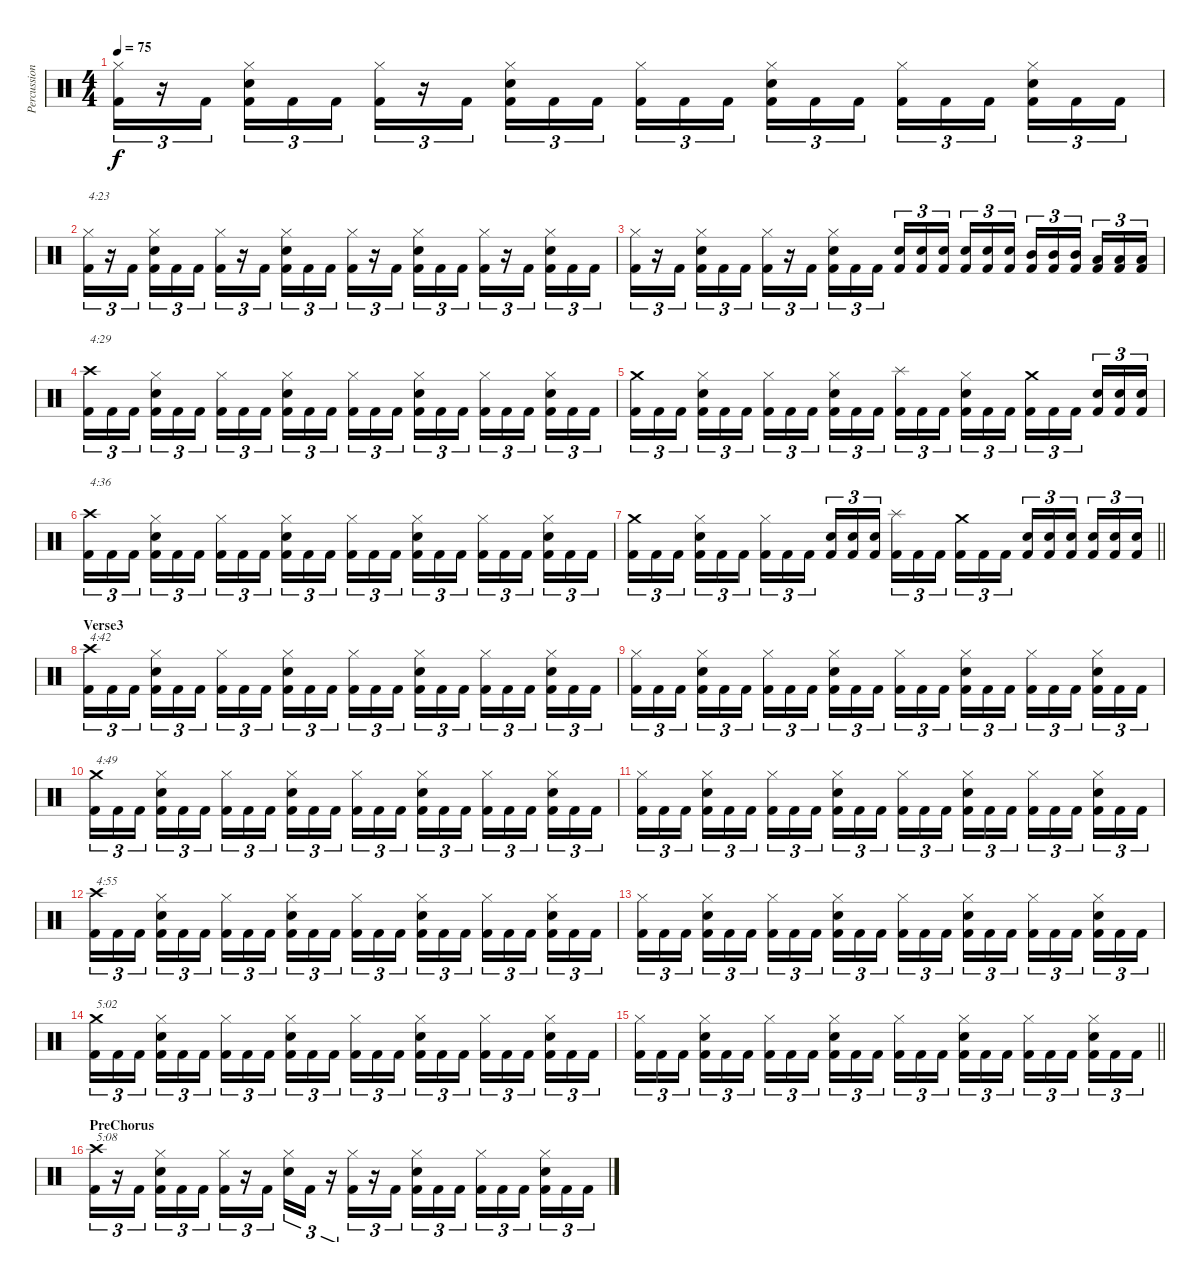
\track ("Percussion" "Percussion") {instrument percussion}
\staff {score}
\articulation defaults
\ts (4 4)
\tempo 75
\clef neutral
\ks c
("Hi-Hat (closed)" "Kick (hit) 2").16{tu (3 2) dy f} r.16{tu (3 2)} "Kick (hit) 2".16{tu (3 2)} ("Hi-Hat (closed)" "Snare (hit) 2" "Kick (hit) 2").16{tu (3 2)} "Kick (hit) 2".16{tu (3 2)} "Kick (hit) 2".16{tu (3 2)} ("Hi-Hat (closed)" "Kick (hit) 2").16{tu (3 2)} r.16{tu (3 2)} "Kick (hit) 2".16{tu (3 2)} ("Hi-Hat (closed)" "Snare (hit) 2" "Kick (hit) 2").16{tu (3 2)} "Kick (hit) 2".16{tu (3 2)} "Kick (hit) 2".16{tu (3 2)} ("Hi-Hat (closed)" "Kick (hit) 2").16{tu (3 2)} "Kick (hit) 2".16{tu (3 2)} "Kick (hit) 2".16{tu (3 2)} ("Hi-Hat (closed)" "Snare (hit) 2" "Kick (hit) 2").16{tu (3 2)} "Kick (hit) 2".16{tu (3 2)} "Kick (hit) 2".16{tu (3 2)} ("Hi-Hat (closed)" "Kick (hit) 2").16{tu (3 2)} "Kick (hit) 2".16{tu (3 2)} "Kick (hit) 2".16{tu (3 2)} ("Hi-Hat (closed)" "Snare (hit) 2" "Kick (hit) 2").16{tu (3 2)} "Kick (hit) 2".16{tu (3 2)} "Kick (hit) 2".16{tu (3 2)} |
("Hi-Hat (closed)" "Kick (hit) 2").16{tu (3 2) txt "4:23"} r.16{tu (3 2)} "Kick (hit) 2".16{tu (3 2)} ("Hi-Hat (closed)" "Snare (hit) 2" "Kick (hit) 2").16{tu (3 2)} "Kick (hit) 2".16{tu (3 2)} "Kick (hit) 2".16{tu (3 2)} ("Hi-Hat (closed)" "Kick (hit) 2").16{tu (3 2)} r.16{tu (3 2)} "Kick (hit) 2".16{tu (3 2)} ("Hi-Hat (closed)" "Snare (hit) 2" "Kick (hit) 2").16{tu (3 2)} "Kick (hit) 2".16{tu (3 2)} "Kick (hit) 2".16{tu (3 2)} ("Hi-Hat (closed)" "Kick (hit) 2").16{tu (3 2)} r.16{tu (3 2)} "Kick (hit) 2".16{tu (3 2)} ("Hi-Hat (closed)" "Snare (hit) 2" "Kick (hit) 2").16{tu (3 2)} "Kick (hit) 2".16{tu (3 2)} "Kick (hit) 2".16{tu (3 2)} ("Hi-Hat (closed)" "Kick (hit) 2").16{tu (3 2)} r.16{tu (3 2)} "Kick (hit) 2".16{tu (3 2)} ("Hi-Hat (closed)" "Snare (hit) 2" "Kick (hit) 2").16{tu (3 2)} "Kick (hit) 2".16{tu (3 2)} "Kick (hit) 2".16{tu (3 2)} |
("Hi-Hat (closed)" "Kick (hit) 2").16{tu (3 2)} r.16{tu (3 2)} "Kick (hit) 2".16{tu (3 2)} ("Hi-Hat (closed)" "Snare (hit) 2" "Kick (hit) 2").16{tu (3 2)} "Kick (hit) 2".16{tu (3 2)} "Kick (hit) 2".16{tu (3 2)} ("Hi-Hat (closed)" "Kick (hit) 2").16{tu (3 2)} r.16{tu (3 2)} "Kick (hit) 2".16{tu (3 2)} ("Hi-Hat (closed)" "Snare (hit) 2" "Kick (hit) 2").16{tu (3 2)} "Kick (hit) 2".16{tu (3 2)} "Kick (hit) 2".16{tu (3 2)} ("Snare (hit) 2" "Kick (hit) 2").16{tu (3 2)} ("Snare (hit) 2" "Kick (hit) 2").16{tu (3 2)} ("Snare (hit) 2" "Kick (hit) 2").16{tu (3 2)} ("Snare (hit) 2" "Kick (hit) 2").16{tu (3 2)} ("Snare (hit) 2" "Kick (hit) 2").16{tu (3 2)} ("Snare (hit) 2" "Kick (hit) 2").16{tu (3 2)} ("Mid Tom (hit)" "Kick (hit) 2").16{tu (3 2)} ("Mid Tom (hit)" "Kick (hit) 2").16{tu (3 2)} ("Mid Tom (hit)" "Kick (hit) 2").16{tu (3 2)} ("Low Tom (hit)" "Kick (hit) 2").16{tu (3 2)} ("Low Tom (hit)" "Kick (hit) 2").16{tu (3 2)} ("Low Tom (hit)" "Kick (hit) 2").16{tu (3 2)} |
("Crash high (hit)" "Kick (hit) 2").16{tu (3 2) txt "4:29"} "Kick (hit) 2".16{tu (3 2)} "Kick (hit) 2".16{tu (3 2)} ("Hi-Hat (closed)" "Snare (hit) 2" "Kick (hit) 2").16{tu (3 2)} "Kick (hit) 2".16{tu (3 2)} "Kick (hit) 2".16{tu (3 2)} ("Hi-Hat (closed)" "Kick (hit) 2").16{tu (3 2)} "Kick (hit) 2".16{tu (3 2)} "Kick (hit) 2".16{tu (3 2)} ("Hi-Hat (closed)" "Snare (hit) 2" "Kick (hit) 2").16{tu (3 2)} "Kick (hit) 2".16{tu (3 2)} "Kick (hit) 2".16{tu (3 2)} ("Hi-Hat (closed)" "Kick (hit) 2").16{tu (3 2)} "Kick (hit) 2".16{tu (3 2)} "Kick (hit) 2".16{tu (3 2)} ("Hi-Hat (closed)" "Snare (hit) 2" "Kick (hit) 2").16{tu (3 2)} "Kick (hit) 2".16{tu (3 2)} "Kick (hit) 2".16{tu (3 2)} ("Hi-Hat (closed)" "Kick (hit) 2").16{tu (3 2)} "Kick (hit) 2".16{tu (3 2)} "Kick (hit) 2".16{tu (3 2)} ("Hi-Hat (closed)" "Snare (hit) 2" "Kick (hit) 2").16{tu (3 2)} "Kick (hit) 2".16{tu (3 2)} "Kick (hit) 2".16{tu (3 2)} |
("Crash medium (hit)" "Kick (hit) 2").16{tu (3 2)} "Kick (hit) 2".16{tu (3 2)} "Kick (hit) 2".16{tu (3 2)} ("Hi-Hat (closed)" "Snare (hit) 2" "Kick (hit) 2").16{tu (3 2)} "Kick (hit) 2".16{tu (3 2)} "Kick (hit) 2".16{tu (3 2)} ("Hi-Hat (closed)" "Kick (hit) 2").16{tu (3 2)} "Kick (hit) 2".16{tu (3 2)} "Kick (hit) 2".16{tu (3 2)} ("Hi-Hat (closed)" "Snare (hit) 2" "Kick (hit) 2").16{tu (3 2)} "Kick (hit) 2".16{tu (3 2)} "Kick (hit) 2".16{tu (3 2)} ("Splash (hit)" "Kick (hit) 2").16{tu (3 2)} "Kick (hit) 2".16{tu (3 2)} "Kick (hit) 2".16{tu (3 2)} ("Hi-Hat (closed)" "Snare (hit) 2" "Kick (hit) 2").16{tu (3 2)} "Kick (hit) 2".16{tu (3 2)} "Kick (hit) 2".16{tu (3 2)} ("Crash medium (hit)" "Kick (hit) 2").16{tu (3 2)} "Kick (hit) 2".16{tu (3 2)} "Kick (hit) 2".16{tu (3 2)} ("Snare (hit) 2" "Kick (hit) 2").16{tu (3 2)} ("Snare (hit) 2" "Kick (hit) 2").16{tu (3 2)} ("Snare (hit) 2" "Kick (hit) 2").16{tu (3 2)} |
("Crash high (hit)" "Kick (hit) 2").16{tu (3 2) txt "4:36"} "Kick (hit) 2".16{tu (3 2)} "Kick (hit) 2".16{tu (3 2)} ("Hi-Hat (closed)" "Snare (hit) 2" "Kick (hit) 2").16{tu (3 2)} "Kick (hit) 2".16{tu (3 2)} "Kick (hit) 2".16{tu (3 2)} ("Hi-Hat (closed)" "Kick (hit) 2").16{tu (3 2)} "Kick (hit) 2".16{tu (3 2)} "Kick (hit) 2".16{tu (3 2)} ("Hi-Hat (closed)" "Snare (hit) 2" "Kick (hit) 2").16{tu (3 2)} "Kick (hit) 2".16{tu (3 2)} "Kick (hit) 2".16{tu (3 2)} ("Hi-Hat (closed)" "Kick (hit) 2").16{tu (3 2)} "Kick (hit) 2".16{tu (3 2)} "Kick (hit) 2".16{tu (3 2)} ("Hi-Hat (closed)" "Snare (hit) 2" "Kick (hit) 2").16{tu (3 2)} "Kick (hit) 2".16{tu (3 2)} "Kick (hit) 2".16{tu (3 2)} ("Hi-Hat (closed)" "Kick (hit) 2").16{tu (3 2)} "Kick (hit) 2".16{tu (3 2)} "Kick (hit) 2".16{tu (3 2)} ("Hi-Hat (closed)" "Snare (hit) 2" "Kick (hit) 2").16{tu (3 2)} "Kick (hit) 2".16{tu (3 2)} "Kick (hit) 2".16{tu (3 2)} |
\barLineRight lightlight
("Crash medium (hit)" "Kick (hit) 2").16{tu (3 2)} "Kick (hit) 2".16{tu (3 2)} "Kick (hit) 2".16{tu (3 2)} ("Hi-Hat (closed)" "Snare (hit) 2" "Kick (hit) 2").16{tu (3 2)} "Kick (hit) 2".16{tu (3 2)} "Kick (hit) 2".16{tu (3 2)} ("Hi-Hat (closed)" "Kick (hit) 2").16{tu (3 2)} "Kick (hit) 2".16{tu (3 2)} "Kick (hit) 2".16{tu (3 2)} ("Snare (hit) 2" "Kick (hit) 2").16{tu (3 2)} ("Snare (hit) 2" "Kick (hit) 2").16{tu (3 2)} ("Snare (hit) 2" "Kick (hit) 2").16{tu (3 2)} ("Splash (hit)" "Kick (hit) 2").16{tu (3 2)} "Kick (hit) 2".16{tu (3 2)} "Kick (hit) 2".16{tu (3 2)} ("Crash medium (hit)" "Kick (hit) 2").16{tu (3 2)} "Kick (hit) 2".16{tu (3 2)} "Kick (hit) 2".16{tu (3 2)} ("Snare (hit) 2" "Kick (hit) 2").16{tu (3 2)} ("Snare (hit) 2" "Kick (hit) 2").16{tu (3 2)} ("Snare (hit) 2" "Kick (hit) 2").16{tu (3 2)} ("Snare (hit) 2" "Kick (hit) 2").16{tu (3 2)} ("Snare (hit) 2" "Kick (hit) 2").16{tu (3 2)} ("Snare (hit) 2" "Kick (hit) 2").16{tu (3 2)} |
\section ("" "Verse3")
("Crash high (hit)" "Kick (hit) 2").16{tu (3 2) txt "4:42"} "Kick (hit) 2".16{tu (3 2)} "Kick (hit) 2".16{tu (3 2)} ("Hi-Hat (closed)" "Snare (hit) 2" "Kick (hit) 2").16{tu (3 2)} "Kick (hit) 2".16{tu (3 2)} "Kick (hit) 2".16{tu (3 2)} ("Hi-Hat (closed)" "Kick (hit) 2").16{tu (3 2)} "Kick (hit) 2".16{tu (3 2)} "Kick (hit) 2".16{tu (3 2)} ("Hi-Hat (closed)" "Snare (hit) 2" "Kick (hit) 2").16{tu (3 2)} "Kick (hit) 2".16{tu (3 2)} "Kick (hit) 2".16{tu (3 2)} ("Hi-Hat (closed)" "Kick (hit) 2").16{tu (3 2)} "Kick (hit) 2".16{tu (3 2)} "Kick (hit) 2".16{tu (3 2)} ("Hi-Hat (closed)" "Snare (hit) 2" "Kick (hit) 2").16{tu (3 2)} "Kick (hit) 2".16{tu (3 2)} "Kick (hit) 2".16{tu (3 2)} ("Hi-Hat (closed)" "Kick (hit) 2").16{tu (3 2)} "Kick (hit) 2".16{tu (3 2)} "Kick (hit) 2".16{tu (3 2)} ("Hi-Hat (closed)" "Snare (hit) 2" "Kick (hit) 2").16{tu (3 2)} "Kick (hit) 2".16{tu (3 2)} "Kick (hit) 2".16{tu (3 2)} |
("Hi-Hat (closed)" "Kick (hit) 2").16{tu (3 2)} "Kick (hit) 2".16{tu (3 2)} "Kick (hit) 2".16{tu (3 2)} ("Hi-Hat (closed)" "Snare (hit) 2" "Kick (hit) 2").16{tu (3 2)} "Kick (hit) 2".16{tu (3 2)} "Kick (hit) 2".16{tu (3 2)} ("Hi-Hat (closed)" "Kick (hit) 2").16{tu (3 2)} "Kick (hit) 2".16{tu (3 2)} "Kick (hit) 2".16{tu (3 2)} ("Hi-Hat (closed)" "Snare (hit) 2" "Kick (hit) 2").16{tu (3 2)} "Kick (hit) 2".16{tu (3 2)} "Kick (hit) 2".16{tu (3 2)} ("Hi-Hat (closed)" "Kick (hit) 2").16{tu (3 2)} "Kick (hit) 2".16{tu (3 2)} "Kick (hit) 2".16{tu (3 2)} ("Hi-Hat (closed)" "Snare (hit) 2" "Kick (hit) 2").16{tu (3 2)} "Kick (hit) 2".16{tu (3 2)} "Kick (hit) 2".16{tu (3 2)} ("Hi-Hat (closed)" "Kick (hit) 2").16{tu (3 2)} "Kick (hit) 2".16{tu (3 2)} "Kick (hit) 2".16{tu (3 2)} ("Hi-Hat (closed)" "Snare (hit) 2" "Kick (hit) 2").16{tu (3 2)} "Kick (hit) 2".16{tu (3 2)} "Kick (hit) 2".16{tu (3 2)} |
("Crash medium (hit)" "Kick (hit) 2").16{tu (3 2) txt "4:49"} "Kick (hit) 2".16{tu (3 2)} "Kick (hit) 2".16{tu (3 2)} ("Hi-Hat (closed)" "Snare (hit) 2" "Kick (hit) 2").16{tu (3 2)} "Kick (hit) 2".16{tu (3 2)} "Kick (hit) 2".16{tu (3 2)} ("Hi-Hat (closed)" "Kick (hit) 2").16{tu (3 2)} "Kick (hit) 2".16{tu (3 2)} "Kick (hit) 2".16{tu (3 2)} ("Hi-Hat (closed)" "Snare (hit) 2" "Kick (hit) 2").16{tu (3 2)} "Kick (hit) 2".16{tu (3 2)} "Kick (hit) 2".16{tu (3 2)} ("Hi-Hat (closed)" "Kick (hit) 2").16{tu (3 2)} "Kick (hit) 2".16{tu (3 2)} "Kick (hit) 2".16{tu (3 2)} ("Hi-Hat (closed)" "Snare (hit) 2" "Kick (hit) 2").16{tu (3 2)} "Kick (hit) 2".16{tu (3 2)} "Kick (hit) 2".16{tu (3 2)} ("Hi-Hat (closed)" "Kick (hit) 2").16{tu (3 2)} "Kick (hit) 2".16{tu (3 2)} "Kick (hit) 2".16{tu (3 2)} ("Hi-Hat (closed)" "Snare (hit) 2" "Kick (hit) 2").16{tu (3 2)} "Kick (hit) 2".16{tu (3 2)} "Kick (hit) 2".16{tu (3 2)} |
("Hi-Hat (closed)" "Kick (hit) 2").16{tu (3 2)} "Kick (hit) 2".16{tu (3 2)} "Kick (hit) 2".16{tu (3 2)} ("Hi-Hat (closed)" "Snare (hit) 2" "Kick (hit) 2").16{tu (3 2)} "Kick (hit) 2".16{tu (3 2)} "Kick (hit) 2".16{tu (3 2)} ("Hi-Hat (closed)" "Kick (hit) 2").16{tu (3 2)} "Kick (hit) 2".16{tu (3 2)} "Kick (hit) 2".16{tu (3 2)} ("Hi-Hat (closed)" "Snare (hit) 2" "Kick (hit) 2").16{tu (3 2)} "Kick (hit) 2".16{tu (3 2)} "Kick (hit) 2".16{tu (3 2)} ("Hi-Hat (closed)" "Kick (hit) 2").16{tu (3 2)} "Kick (hit) 2".16{tu (3 2)} "Kick (hit) 2".16{tu (3 2)} ("Hi-Hat (closed)" "Snare (hit) 2" "Kick (hit) 2").16{tu (3 2)} "Kick (hit) 2".16{tu (3 2)} "Kick (hit) 2".16{tu (3 2)} ("Hi-Hat (closed)" "Kick (hit) 2").16{tu (3 2)} "Kick (hit) 2".16{tu (3 2)} "Kick (hit) 2".16{tu (3 2)} ("Hi-Hat (closed)" "Snare (hit) 2" "Kick (hit) 2").16{tu (3 2)} "Kick (hit) 2".16{tu (3 2)} "Kick (hit) 2".16{tu (3 2)} |
("Crash high (hit)" "Kick (hit) 2").16{tu (3 2) txt "4:55"} "Kick (hit) 2".16{tu (3 2)} "Kick (hit) 2".16{tu (3 2)} ("Hi-Hat (closed)" "Snare (hit) 2" "Kick (hit) 2").16{tu (3 2)} "Kick (hit) 2".16{tu (3 2)} "Kick (hit) 2".16{tu (3 2)} ("Hi-Hat (closed)" "Kick (hit) 2").16{tu (3 2)} "Kick (hit) 2".16{tu (3 2)} "Kick (hit) 2".16{tu (3 2)} ("Hi-Hat (closed)" "Snare (hit) 2" "Kick (hit) 2").16{tu (3 2)} "Kick (hit) 2".16{tu (3 2)} "Kick (hit) 2".16{tu (3 2)} ("Hi-Hat (closed)" "Kick (hit) 2").16{tu (3 2)} "Kick (hit) 2".16{tu (3 2)} "Kick (hit) 2".16{tu (3 2)} ("Hi-Hat (closed)" "Snare (hit) 2" "Kick (hit) 2").16{tu (3 2)} "Kick (hit) 2".16{tu (3 2)} "Kick (hit) 2".16{tu (3 2)} ("Hi-Hat (closed)" "Kick (hit) 2").16{tu (3 2)} "Kick (hit) 2".16{tu (3 2)} "Kick (hit) 2".16{tu (3 2)} ("Hi-Hat (closed)" "Snare (hit) 2" "Kick (hit) 2").16{tu (3 2)} "Kick (hit) 2".16{tu (3 2)} "Kick (hit) 2".16{tu (3 2)} |
("Hi-Hat (closed)" "Kick (hit) 2").16{tu (3 2)} "Kick (hit) 2".16{tu (3 2)} "Kick (hit) 2".16{tu (3 2)} ("Hi-Hat (closed)" "Snare (hit) 2" "Kick (hit) 2").16{tu (3 2)} "Kick (hit) 2".16{tu (3 2)} "Kick (hit) 2".16{tu (3 2)} ("Hi-Hat (closed)" "Kick (hit) 2").16{tu (3 2)} "Kick (hit) 2".16{tu (3 2)} "Kick (hit) 2".16{tu (3 2)} ("Hi-Hat (closed)" "Snare (hit) 2" "Kick (hit) 2").16{tu (3 2)} "Kick (hit) 2".16{tu (3 2)} "Kick (hit) 2".16{tu (3 2)} ("Hi-Hat (closed)" "Kick (hit) 2").16{tu (3 2)} "Kick (hit) 2".16{tu (3 2)} "Kick (hit) 2".16{tu (3 2)} ("Hi-Hat (closed)" "Snare (hit) 2" "Kick (hit) 2").16{tu (3 2)} "Kick (hit) 2".16{tu (3 2)} "Kick (hit) 2".16{tu (3 2)} ("Hi-Hat (closed)" "Kick (hit) 2").16{tu (3 2)} "Kick (hit) 2".16{tu (3 2)} "Kick (hit) 2".16{tu (3 2)} ("Hi-Hat (closed)" "Snare (hit) 2" "Kick (hit) 2").16{tu (3 2)} "Kick (hit) 2".16{tu (3 2)} "Kick (hit) 2".16{tu (3 2)} |
("Crash medium (hit)" "Kick (hit) 2").16{tu (3 2) txt "5:02"} "Kick (hit) 2".16{tu (3 2)} "Kick (hit) 2".16{tu (3 2)} ("Hi-Hat (closed)" "Snare (hit) 2" "Kick (hit) 2").16{tu (3 2)} "Kick (hit) 2".16{tu (3 2)} "Kick (hit) 2".16{tu (3 2)} ("Hi-Hat (closed)" "Kick (hit) 2").16{tu (3 2)} "Kick (hit) 2".16{tu (3 2)} "Kick (hit) 2".16{tu (3 2)} ("Hi-Hat (closed)" "Snare (hit) 2" "Kick (hit) 2").16{tu (3 2)} "Kick (hit) 2".16{tu (3 2)} "Kick (hit) 2".16{tu (3 2)} ("Hi-Hat (closed)" "Kick (hit) 2").16{tu (3 2)} "Kick (hit) 2".16{tu (3 2)} "Kick (hit) 2".16{tu (3 2)} ("Hi-Hat (closed)" "Snare (hit) 2" "Kick (hit) 2").16{tu (3 2)} "Kick (hit) 2".16{tu (3 2)} "Kick (hit) 2".16{tu (3 2)} ("Hi-Hat (closed)" "Kick (hit) 2").16{tu (3 2)} "Kick (hit) 2".16{tu (3 2)} "Kick (hit) 2".16{tu (3 2)} ("Hi-Hat (closed)" "Snare (hit) 2" "Kick (hit) 2").16{tu (3 2)} "Kick (hit) 2".16{tu (3 2)} "Kick (hit) 2".16{tu (3 2)} |
\barLineRight lightlight
("Hi-Hat (closed)" "Kick (hit) 2").16{tu (3 2)} "Kick (hit) 2".16{tu (3 2)} "Kick (hit) 2".16{tu (3 2)} ("Hi-Hat (closed)" "Snare (hit) 2" "Kick (hit) 2").16{tu (3 2)} "Kick (hit) 2".16{tu (3 2)} "Kick (hit) 2".16{tu (3 2)} ("Hi-Hat (closed)" "Kick (hit) 2").16{tu (3 2)} "Kick (hit) 2".16{tu (3 2)} "Kick (hit) 2".16{tu (3 2)} ("Hi-Hat (closed)" "Snare (hit) 2" "Kick (hit) 2").16{tu (3 2)} "Kick (hit) 2".16{tu (3 2)} "Kick (hit) 2".16{tu (3 2)} ("Hi-Hat (closed)" "Kick (hit) 2").16{tu (3 2)} "Kick (hit) 2".16{tu (3 2)} "Kick (hit) 2".16{tu (3 2)} ("Hi-Hat (closed)" "Snare (hit) 2" "Kick (hit) 2").16{tu (3 2)} "Kick (hit) 2".16{tu (3 2)} "Kick (hit) 2".16{tu (3 2)} ("Hi-Hat (closed)" "Kick (hit) 2").16{tu (3 2)} "Kick (hit) 2".16{tu (3 2)} "Kick (hit) 2".16{tu (3 2)} ("Hi-Hat (closed)" "Snare (hit) 2" "Kick (hit) 2").16{tu (3 2)} "Kick (hit) 2".16{tu (3 2)} "Kick (hit) 2".16{tu (3 2)} |
\section ("" "PreChorus")
("Crash high (hit)" "Kick (hit) 2").16{tu (3 2) txt "5:08"} r.16{tu (3 2)} "Kick (hit) 2".16{tu (3 2)} ("Hi-Hat (closed)" "Snare (hit) 2" "Kick (hit) 2").16{tu (3 2)} "Kick (hit) 2".16{tu (3 2)} "Kick (hit) 2".16{tu (3 2)} ("Hi-Hat (closed)" "Kick (hit) 2").16{tu (3 2)} r.16{tu (3 2)} "Kick (hit) 2".16{tu (3 2)} ("Hi-Hat (closed)" "Snare (hit) 2").16{tu (3 2)} "Kick (hit) 2".16{tu (3 2)} r.16{tu (3 2)} ("Hi-Hat (closed)" "Kick (hit) 2").16{tu (3 2)} r.16{tu (3 2)} "Kick (hit) 2".16{tu (3 2)} ("Hi-Hat (closed)" "Snare (hit) 2" "Kick (hit) 2").16{tu (3 2)} "Kick (hit) 2".16{tu (3 2)} "Kick (hit) 2".16{tu (3 2)} ("Hi-Hat (closed)" "Kick (hit) 2").16{tu (3 2)} "Kick (hit) 2".16{tu (3 2)} "Kick (hit) 2".16{tu (3 2)} ("Hi-Hat (closed)" "Snare (hit) 2" "Kick (hit) 2").16{tu (3 2)} "Kick (hit) 2".16{tu (3 2)} "Kick (hit) 2".16{tu (3 2)}
